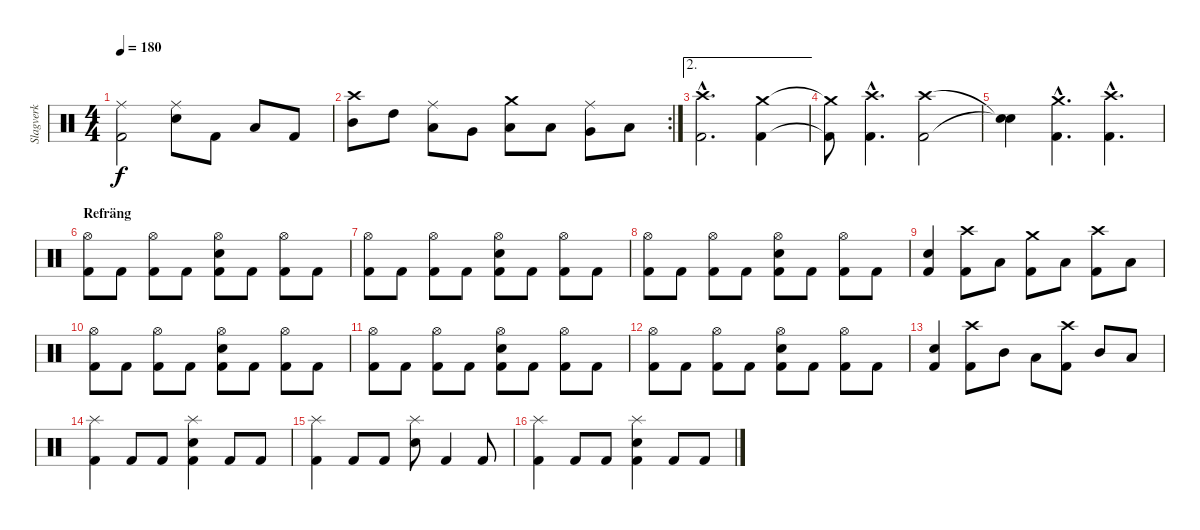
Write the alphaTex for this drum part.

\track ("Slagverk" "Slagverk") {instrument percussion}
\staff {score}
\articulation defaults
\ts (4 4)
\tempo 180
\clef neutral
\ks c
("Kick (hit) 2" "Ride (middle)").2{dy f} ("Snare (hit) 2" "Ride (middle)").8 "Kick (hit) 2".8 "Low Floor Tom (hit)".8 "Kick (hit) 2".8 |
\rc 2
("Mid Tom (hit)" "Crash high (hit)").8 "High Tom (hit)".8 ("Low Tom (hit)" "Ride (middle)").8 "Very Low Tom (hit)".8 ("Low Floor Tom (hit)" "Crash medium (hit)").8 "Low Tom (hit)".8 ("Very Low Tom (hit)" "Ride (middle)").8 "Low Floor Tom (hit)".8 |
\ae 2
("Kick (hit) 2"{hac} "Crash high (hit)"{hac}).2{d} ("Kick (hit) 2" "Crash medium (hit)").4 |
("Kick (hit) 2"{t} "Crash medium (hit)"{t}).8 ("Kick (hit) 2"{hac} "Crash high (hit)"{hac}).4{d} ("Kick (hit) 2" "Crash high (hit)").2 |
("Snare (hit)"{t} "Snare (hit)"{t}).4 ("Kick (hit) 2"{hac} "Crash medium (hit)"{hac}).4{d} ("Kick (hit) 2"{hac} "Crash high (hit)"{hac}).4{d} |
\section ("" "Refräng")
("Kick (hit) 2" "Hi-Hat (open)").8 "Kick (hit) 2".8 ("Kick (hit) 2" "Hi-Hat (open)").8 "Kick (hit) 2".8 ("Kick (hit) 2" "Snare (hit) 2" "Hi-Hat (open)").8 "Kick (hit) 2".8 ("Kick (hit) 2" "Hi-Hat (open)").8 "Kick (hit) 2".8 |
("Kick (hit) 2" "Hi-Hat (open)").8 "Kick (hit) 2".8 ("Kick (hit) 2" "Hi-Hat (open)").8 "Kick (hit) 2".8 ("Kick (hit) 2" "Snare (hit) 2" "Hi-Hat (open)").8 "Kick (hit) 2".8 ("Kick (hit) 2" "Hi-Hat (open)").8 "Kick (hit) 2".8 |
("Kick (hit) 2" "Hi-Hat (open)").8 "Kick (hit) 2".8 ("Kick (hit) 2" "Hi-Hat (open)").8 "Kick (hit) 2".8 ("Kick (hit) 2" "Snare (hit) 2" "Hi-Hat (open)").8 "Kick (hit) 2".8 ("Kick (hit) 2" "Hi-Hat (open)").8 "Kick (hit) 2".8 |
("Kick (hit) 2" "Snare (hit) 2").4 ("Kick (hit) 2" "Crash high (hit)").8 "Low Floor Tom (hit)".8 ("Kick (hit) 2" "Crash medium (hit)").8 "Low Floor Tom (hit)".8 ("Kick (hit) 2" "Crash high (hit)").8 "Low Floor Tom (hit)".8 |
("Kick (hit) 2" "Hi-Hat (open)").8 "Kick (hit) 2".8 ("Kick (hit) 2" "Hi-Hat (open)").8 "Kick (hit) 2".8 ("Kick (hit) 2" "Snare (hit) 2" "Hi-Hat (open)").8 "Kick (hit) 2".8 ("Kick (hit) 2" "Hi-Hat (open)").8 "Kick (hit) 2".8 |
("Kick (hit) 2" "Hi-Hat (open)").8 "Kick (hit) 2".8 ("Kick (hit) 2" "Hi-Hat (open)").8 "Kick (hit) 2".8 ("Kick (hit) 2" "Snare (hit) 2" "Hi-Hat (open)").8 "Kick (hit) 2".8 ("Kick (hit) 2" "Hi-Hat (open)").8 "Kick (hit) 2".8 |
("Kick (hit) 2" "Hi-Hat (open)").8 "Kick (hit) 2".8 ("Kick (hit) 2" "Hi-Hat (open)").8 "Kick (hit) 2".8 ("Kick (hit) 2" "Snare (hit) 2" "Hi-Hat (open)").8 "Kick (hit) 2".8 ("Kick (hit) 2" "Hi-Hat (open)").8 "Kick (hit) 2".8 |
("Kick (hit) 2" "Snare (hit) 2").4 ("Kick (hit) 2" "Crash high (hit)").8 "Mid Tom (hit)".8 "Low Tom (hit)".8 ("Kick (hit) 2" "Crash high (hit)").8 "Mid Tom (hit)".8 "Low Tom (hit)".8 |
("Kick (hit) 2" "Splash (hit)").4 "Kick (hit) 2".8 "Kick (hit) 2".8 ("Kick (hit) 2" "Snare (hit) 2" "Splash (hit)").4 "Kick (hit) 2".8 "Kick (hit) 2".8 |
("Kick (hit) 2" "Splash (hit)").4 "Kick (hit) 2".8 "Kick (hit) 2".8 ("Snare (hit) 2" "Splash (hit)").8 "Kick (hit) 2".4 "Kick (hit) 2".8 |
("Kick (hit) 2" "Splash (hit)").4 "Kick (hit) 2".8 "Kick (hit) 2".8 ("Kick (hit) 2" "Snare (hit) 2" "Splash (hit)").4 "Kick (hit) 2".8 "Kick (hit) 2".8
